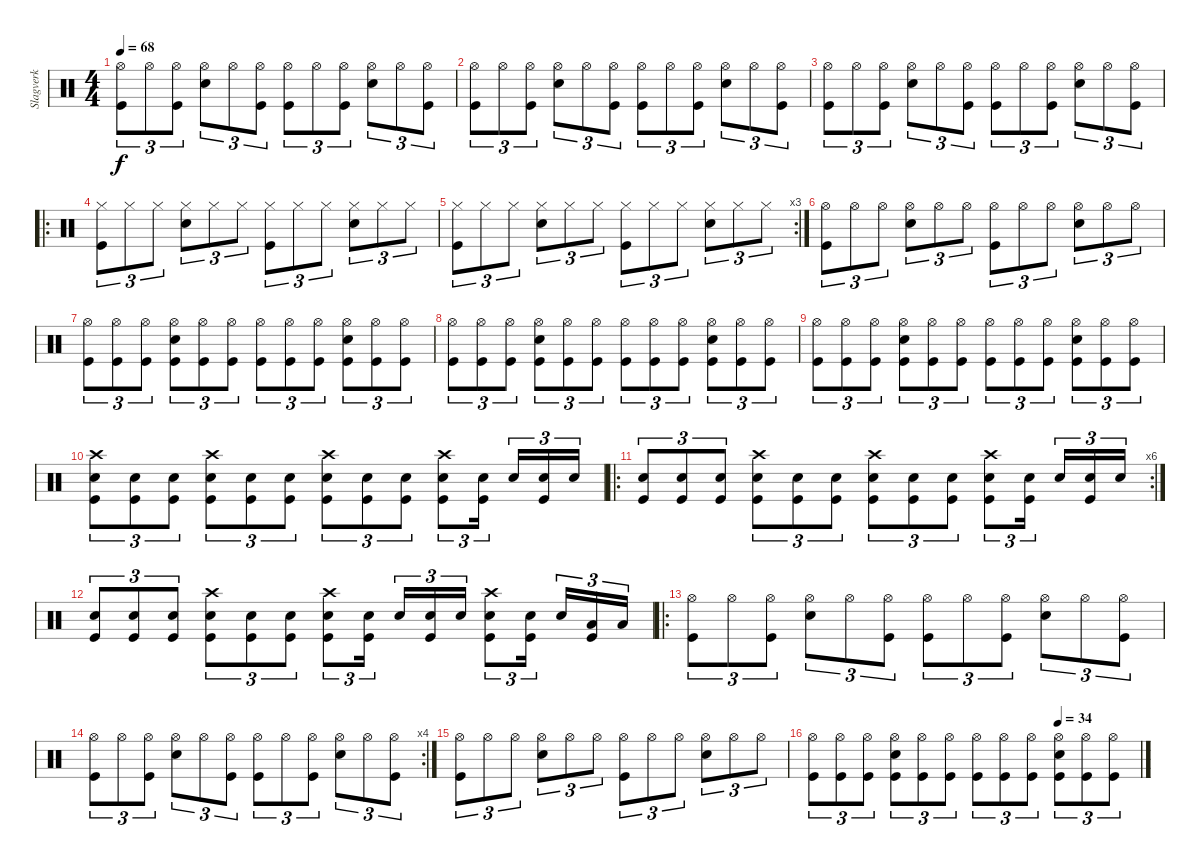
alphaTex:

\track ("Slagverk" "Slagverk") {instrument percussion}
\staff {score}
\articulation defaults
\ts (4 4)
\tempo 68
\clef neutral
\ks c
("Hi-Hat (open)" "Kick (hit)").8{tu (3 2) dy f} "Hi-Hat (open)".8{tu (3 2)} ("Hi-Hat (open)" "Kick (hit)").8{tu (3 2)} ("Hi-Hat (open)" "Snare (hit) 2").8{tu (3 2)} "Hi-Hat (open)".8{tu (3 2)} ("Hi-Hat (open)" "Kick (hit)").8{tu (3 2)} ("Hi-Hat (open)" "Kick (hit)").8{tu (3 2)} "Hi-Hat (open)".8{tu (3 2)} ("Hi-Hat (open)" "Kick (hit)").8{tu (3 2)} ("Hi-Hat (open)" "Snare (hit) 2").8{tu (3 2)} "Hi-Hat (open)".8{tu (3 2)} ("Hi-Hat (open)" "Kick (hit)").8{tu (3 2)} |
("Hi-Hat (open)" "Kick (hit)").8{tu (3 2)} "Hi-Hat (open)".8{tu (3 2)} ("Hi-Hat (open)" "Kick (hit)").8{tu (3 2)} ("Hi-Hat (open)" "Snare (hit) 2").8{tu (3 2)} "Hi-Hat (open)".8{tu (3 2)} ("Hi-Hat (open)" "Kick (hit)").8{tu (3 2)} ("Hi-Hat (open)" "Kick (hit)").8{tu (3 2)} "Hi-Hat (open)".8{tu (3 2)} ("Hi-Hat (open)" "Kick (hit)").8{tu (3 2)} ("Hi-Hat (open)" "Snare (hit) 2").8{tu (3 2)} "Hi-Hat (open)".8{tu (3 2)} ("Hi-Hat (open)" "Kick (hit)").8{tu (3 2)} |
("Hi-Hat (open)" "Kick (hit)").8{tu (3 2)} "Hi-Hat (open)".8{tu (3 2)} ("Hi-Hat (open)" "Kick (hit)").8{tu (3 2)} ("Hi-Hat (open)" "Snare (hit) 2").8{tu (3 2)} "Hi-Hat (open)".8{tu (3 2)} ("Hi-Hat (open)" "Kick (hit)").8{tu (3 2)} ("Hi-Hat (open)" "Kick (hit)").8{tu (3 2)} "Hi-Hat (open)".8{tu (3 2)} ("Hi-Hat (open)" "Kick (hit)").8{tu (3 2)} ("Hi-Hat (open)" "Snare (hit) 2").8{tu (3 2)} "Hi-Hat (open)".8{tu (3 2)} ("Hi-Hat (open)" "Kick (hit)").8{tu (3 2)} |
\ro
("Hi-Hat (closed)" "Kick (hit)").8{tu (3 2)} "Hi-Hat (closed)".8{tu (3 2)} "Hi-Hat (closed)".8{tu (3 2)} ("Hi-Hat (closed)" "Snare (hit) 2").8{tu (3 2)} "Hi-Hat (closed)".8{tu (3 2)} "Hi-Hat (closed)".8{tu (3 2)} ("Hi-Hat (closed)" "Kick (hit)").8{tu (3 2)} "Hi-Hat (closed)".8{tu (3 2)} "Hi-Hat (closed)".8{tu (3 2)} ("Hi-Hat (closed)" "Snare (hit) 2").8{tu (3 2)} "Hi-Hat (closed)".8{tu (3 2)} "Hi-Hat (closed)".8{tu (3 2)} |
\rc 3
("Hi-Hat (closed)" "Kick (hit)").8{tu (3 2)} "Hi-Hat (closed)".8{tu (3 2)} "Hi-Hat (closed)".8{tu (3 2)} ("Hi-Hat (closed)" "Snare (hit) 2").8{tu (3 2)} "Hi-Hat (closed)".8{tu (3 2)} "Hi-Hat (closed)".8{tu (3 2)} ("Hi-Hat (closed)" "Kick (hit)").8{tu (3 2)} "Hi-Hat (closed)".8{tu (3 2)} "Hi-Hat (closed)".8{tu (3 2)} ("Hi-Hat (closed)" "Snare (hit) 2").8{tu (3 2)} "Hi-Hat (closed)".8{tu (3 2)} "Hi-Hat (closed)".8{tu (3 2)} |
("Hi-Hat (open)" "Kick (hit)").8{tu (3 2)} "Hi-Hat (open)".8{tu (3 2)} "Hi-Hat (open)".8{tu (3 2)} ("Hi-Hat (open)" "Snare (hit) 2").8{tu (3 2)} "Hi-Hat (open)".8{tu (3 2)} "Hi-Hat (open)".8{tu (3 2)} ("Hi-Hat (open)" "Kick (hit)").8{tu (3 2)} "Hi-Hat (open)".8{tu (3 2)} "Hi-Hat (open)".8{tu (3 2)} ("Hi-Hat (open)" "Snare (hit) 2").8{tu (3 2)} "Hi-Hat (open)".8{tu (3 2)} "Hi-Hat (open)".8{tu (3 2)} |
("Hi-Hat (open)" "Kick (hit)").8{tu (3 2)} ("Hi-Hat (open)" "Kick (hit)").8{tu (3 2)} ("Hi-Hat (open)" "Kick (hit)").8{tu (3 2)} ("Snare (hit) 2" "Hi-Hat (open)" "Kick (hit)").8{tu (3 2)} ("Hi-Hat (open)" "Kick (hit)").8{tu (3 2)} ("Hi-Hat (open)" "Kick (hit)").8{tu (3 2)} ("Hi-Hat (open)" "Kick (hit)").8{tu (3 2)} ("Hi-Hat (open)" "Kick (hit)").8{tu (3 2)} ("Hi-Hat (open)" "Kick (hit)").8{tu (3 2)} ("Snare (hit) 2" "Hi-Hat (open)" "Kick (hit)").8{tu (3 2)} ("Hi-Hat (open)" "Kick (hit)").8{tu (3 2)} ("Hi-Hat (open)" "Kick (hit)").8{tu (3 2)} |
("Hi-Hat (open)" "Kick (hit)").8{tu (3 2)} ("Hi-Hat (open)" "Kick (hit)").8{tu (3 2)} ("Hi-Hat (open)" "Kick (hit)").8{tu (3 2)} ("Snare (hit) 2" "Hi-Hat (open)" "Kick (hit)").8{tu (3 2)} ("Hi-Hat (open)" "Kick (hit)").8{tu (3 2)} ("Hi-Hat (open)" "Kick (hit)").8{tu (3 2)} ("Hi-Hat (open)" "Kick (hit)").8{tu (3 2)} ("Hi-Hat (open)" "Kick (hit)").8{tu (3 2)} ("Hi-Hat (open)" "Kick (hit)").8{tu (3 2)} ("Snare (hit) 2" "Hi-Hat (open)" "Kick (hit)").8{tu (3 2)} ("Hi-Hat (open)" "Kick (hit)").8{tu (3 2)} ("Hi-Hat (open)" "Kick (hit)").8{tu (3 2)} |
("Hi-Hat (open)" "Kick (hit)").8{tu (3 2)} ("Hi-Hat (open)" "Kick (hit)").8{tu (3 2)} ("Hi-Hat (open)" "Kick (hit)").8{tu (3 2)} ("Snare (hit) 2" "Hi-Hat (open)" "Kick (hit)").8{tu (3 2)} ("Hi-Hat (open)" "Kick (hit)").8{tu (3 2)} ("Hi-Hat (open)" "Kick (hit)").8{tu (3 2)} ("Hi-Hat (open)" "Kick (hit)").8{tu (3 2)} ("Hi-Hat (open)" "Kick (hit)").8{tu (3 2)} ("Hi-Hat (open)" "Kick (hit)").8{tu (3 2)} ("Snare (hit) 2" "Hi-Hat (open)" "Kick (hit)").8{tu (3 2)} ("Hi-Hat (open)" "Kick (hit)").8{tu (3 2)} ("Hi-Hat (open)" "Kick (hit)").8{tu (3 2)} |
("Crash high (hit)" "Snare (hit) 2" "Kick (hit)").8{tu (3 2)} ("Snare (hit) 2" "Kick (hit)").8{tu (3 2)} ("Snare (hit) 2" "Kick (hit)").8{tu (3 2)} ("Crash high (hit)" "Snare (hit) 2" "Kick (hit)").8{tu (3 2)} ("Snare (hit) 2" "Kick (hit)").8{tu (3 2)} ("Snare (hit) 2" "Kick (hit)").8{tu (3 2)} ("Crash high (hit)" "Snare (hit) 2" "Kick (hit)").8{tu (3 2)} ("Snare (hit) 2" "Kick (hit)").8{tu (3 2)} ("Snare (hit) 2" "Kick (hit)").8{tu (3 2)} ("Crash high (hit)" "Snare (hit) 2" "Kick (hit)").8{tu (3 2)} ("Snare (hit) 2" "Kick (hit)").16{tu (3 2) beam splitsecondary} "Snare (hit) 2".16{tu (3 2)} ("Snare (hit) 2" "Kick (hit)").16{tu (3 2)} "Snare (hit) 2".16{tu (3 2)} |
\ro
\rc 6
("Snare (hit) 2" "Kick (hit)").8{tu (3 2)} ("Snare (hit) 2" "Kick (hit)").8{tu (3 2)} ("Snare (hit) 2" "Kick (hit)").8{tu (3 2)} ("Crash high (hit)" "Snare (hit) 2" "Kick (hit)").8{tu (3 2)} ("Snare (hit) 2" "Kick (hit)").8{tu (3 2)} ("Snare (hit) 2" "Kick (hit)").8{tu (3 2)} ("Crash high (hit)" "Snare (hit) 2" "Kick (hit)").8{tu (3 2)} ("Snare (hit) 2" "Kick (hit)").8{tu (3 2)} ("Snare (hit) 2" "Kick (hit)").8{tu (3 2)} ("Crash high (hit)" "Snare (hit) 2" "Kick (hit)").8{tu (3 2)} ("Snare (hit) 2" "Kick (hit)").16{tu (3 2) beam splitsecondary} "Snare (hit) 2".16{tu (3 2)} ("Snare (hit) 2" "Kick (hit)").16{tu (3 2)} "Snare (hit) 2".16{tu (3 2)} |
("Snare (hit) 2" "Kick (hit)").8{tu (3 2)} ("Snare (hit) 2" "Kick (hit)").8{tu (3 2)} ("Snare (hit) 2" "Kick (hit)").8{tu (3 2)} ("Crash high (hit)" "Snare (hit) 2" "Kick (hit)").8{tu (3 2)} ("Snare (hit) 2" "Kick (hit)").8{tu (3 2)} ("Snare (hit) 2" "Kick (hit)").8{tu (3 2)} ("Crash high (hit)" "Snare (hit) 2" "Kick (hit)").8{tu (3 2)} ("Snare (hit) 2" "Kick (hit)").16{tu (3 2) beam splitsecondary} "Snare (hit) 2".16{tu (3 2)} ("Snare (hit) 2" "Kick (hit)").16{tu (3 2)} "Snare (hit) 2".16{tu (3 2)} ("Crash high (hit)" "Snare (hit) 2" "Kick (hit)").8{tu (3 2)} ("Snare (hit) 2" "Kick (hit)").16{tu (3 2) beam splitsecondary} "Snare (hit) 2".16{tu (3 2)} ("Low Tom (hit)" "Kick (hit)").16{tu (3 2)} "Low Tom (hit)".16{tu (3 2)} |
\ro
("Hi-Hat (open)" "Kick (hit)").8{tu (3 2)} "Hi-Hat (open)".8{tu (3 2)} ("Hi-Hat (open)" "Kick (hit)").8{tu (3 2)} ("Hi-Hat (open)" "Snare (hit) 2").8{tu (3 2)} "Hi-Hat (open)".8{tu (3 2)} ("Hi-Hat (open)" "Kick (hit)").8{tu (3 2)} ("Hi-Hat (open)" "Kick (hit)").8{tu (3 2)} "Hi-Hat (open)".8{tu (3 2)} ("Hi-Hat (open)" "Kick (hit)").8{tu (3 2)} ("Hi-Hat (open)" "Snare (hit) 2").8{tu (3 2)} "Hi-Hat (open)".8{tu (3 2)} ("Hi-Hat (open)" "Kick (hit)").8{tu (3 2)} |
\rc 4
("Hi-Hat (open)" "Kick (hit)").8{tu (3 2)} "Hi-Hat (open)".8{tu (3 2)} ("Hi-Hat (open)" "Kick (hit)").8{tu (3 2)} ("Hi-Hat (open)" "Snare (hit) 2").8{tu (3 2)} "Hi-Hat (open)".8{tu (3 2)} ("Hi-Hat (open)" "Kick (hit)").8{tu (3 2)} ("Hi-Hat (open)" "Kick (hit)").8{tu (3 2)} "Hi-Hat (open)".8{tu (3 2)} ("Hi-Hat (open)" "Kick (hit)").8{tu (3 2)} ("Hi-Hat (open)" "Snare (hit) 2").8{tu (3 2)} "Hi-Hat (open)".8{tu (3 2)} ("Hi-Hat (open)" "Kick (hit)").8{tu (3 2)} |
("Hi-Hat (open)" "Kick (hit)").8{tu (3 2)} "Hi-Hat (open)".8{tu (3 2)} "Hi-Hat (open)".8{tu (3 2)} ("Hi-Hat (open)" "Snare (hit) 2").8{tu (3 2)} "Hi-Hat (open)".8{tu (3 2)} "Hi-Hat (open)".8{tu (3 2)} ("Hi-Hat (open)" "Kick (hit)").8{tu (3 2)} "Hi-Hat (open)".8{tu (3 2)} "Hi-Hat (open)".8{tu (3 2)} ("Hi-Hat (open)" "Snare (hit) 2").8{tu (3 2)} "Hi-Hat (open)".8{tu (3 2)} "Hi-Hat (open)".8{tu (3 2)} |
\tempo (34 0.75)
("Hi-Hat (open)" "Kick (hit)").8{tu (3 2)} ("Hi-Hat (open)" "Kick (hit)").8{tu (3 2)} ("Hi-Hat (open)" "Kick (hit)").8{tu (3 2)} ("Snare (hit) 2" "Hi-Hat (open)" "Kick (hit)").8{tu (3 2)} ("Hi-Hat (open)" "Kick (hit)").8{tu (3 2)} ("Hi-Hat (open)" "Kick (hit)").8{tu (3 2)} ("Hi-Hat (open)" "Kick (hit)").8{tu (3 2)} ("Hi-Hat (open)" "Kick (hit)").8{tu (3 2)} ("Hi-Hat (open)" "Kick (hit)").8{tu (3 2)} ("Snare (hit) 2" "Hi-Hat (open)" "Kick (hit)").8{tu (3 2)} ("Hi-Hat (open)" "Kick (hit)").8{tu (3 2)} ("Hi-Hat (open)" "Kick (hit)").8{tu (3 2)}
